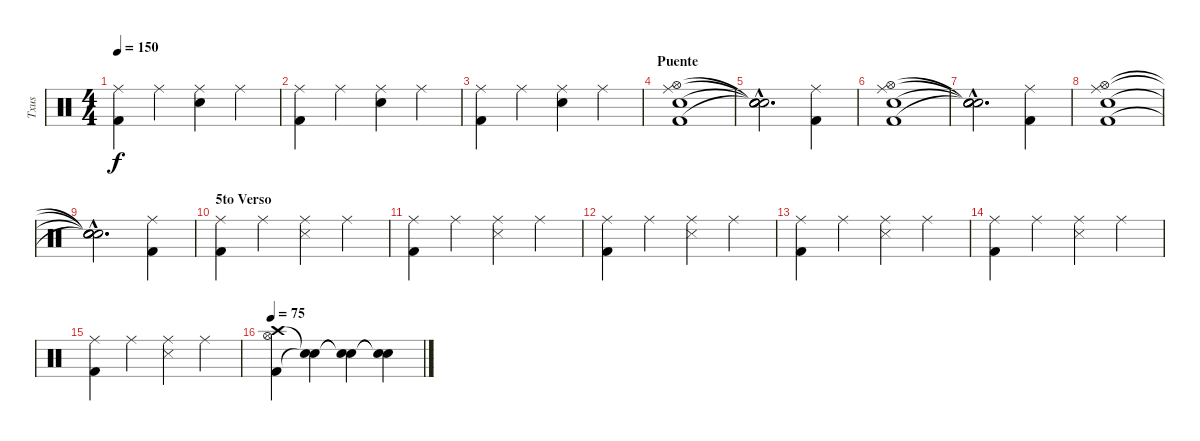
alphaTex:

\track ("Txus" "Txus") {instrument percussion}
\staff {score}
\articulation defaults
\ts (4 4)
\tempo 150
\clef neutral
\ks c
("Ride (middle)" "Kick (hit) 2").4{dy f} "Ride (middle)".4 ("Snare (hit) 2" "Ride (middle)").4 "Ride (middle)".4 |
("Ride (middle)" "Kick (hit) 2").4 "Ride (middle)".4 ("Snare (hit) 2" "Ride (middle)").4 "Ride (middle)".4 |
("Ride (middle)" "Kick (hit) 2").4 "Ride (middle)".4 ("Snare (hit) 2" "Ride (middle)").4 "Ride (middle)".4 |
\section ("" "Puente")
("Ride (middle)" "Kick (hit) 2" "Hi-Hat (open)" "Snare (hit) 2").1 |
("Snare (hit)"{hac t} "Snare (hit)"{hac t} "Snare (hit)"{hac t} "Snare (hit)"{hac t}).2{d} ("Ride (middle)" "Kick (hit) 2").4 |
("Ride (middle)" "Kick (hit) 2" "Hi-Hat (open)" "Snare (hit) 2").1 |
("Snare (hit)"{hac t} "Snare (hit)"{hac t} "Snare (hit)"{hac t} "Snare (hit)"{hac t}).2{d} ("Ride (middle)" "Kick (hit) 2").4 |
("Ride (middle)" "Kick (hit) 2" "Hi-Hat (open)" "Snare (hit) 2").1 |
("Snare (hit)"{hac t} "Snare (hit)"{hac t} "Snare (hit)"{hac t} "Snare (hit)"{hac t}).2{d} ("Ride (middle)" "Kick (hit) 2").4 |
\section ("" "5to Verso")
("Kick (hit) 2" "Ride (middle)").4 "Ride (middle)".4 ("Snare (side stick) 3" "Ride (middle)").4 "Ride (middle)".4 |
("Ride (middle)" "Kick (hit) 2").4 "Ride (middle)".4 ("Snare (side stick) 3" "Ride (middle)").4 "Ride (middle)".4 |
("Ride (middle)" "Kick (hit) 2").4 "Ride (middle)".4 ("Snare (side stick) 3" "Ride (middle)").4 "Ride (middle)".4 |
("Kick (hit) 2" "Ride (middle)").4 "Ride (middle)".4 ("Snare (side stick) 3" "Ride (middle)").4 "Ride (middle)".4 |
("Ride (middle)" "Kick (hit) 2").4 "Ride (middle)".4 ("Snare (side stick) 3" "Ride (middle)").4 "Ride (middle)".4 |
("Kick (hit) 2" "Ride (middle)").4 "Ride (middle)".4 ("Snare (side stick) 3" "Ride (middle)").4 "Ride (middle)".4 |
\tempo 75
("Crash high (hit)" "Kick (hit) 2" "Hi-Hat (open)").4 ("Snare (hit)"{t} "Snare (hit)"{t}).4 ("Snare (hit)"{t} "Snare (hit)"{t}).4 ("Snare (hit)"{t} "Snare (hit)"{t}).4
